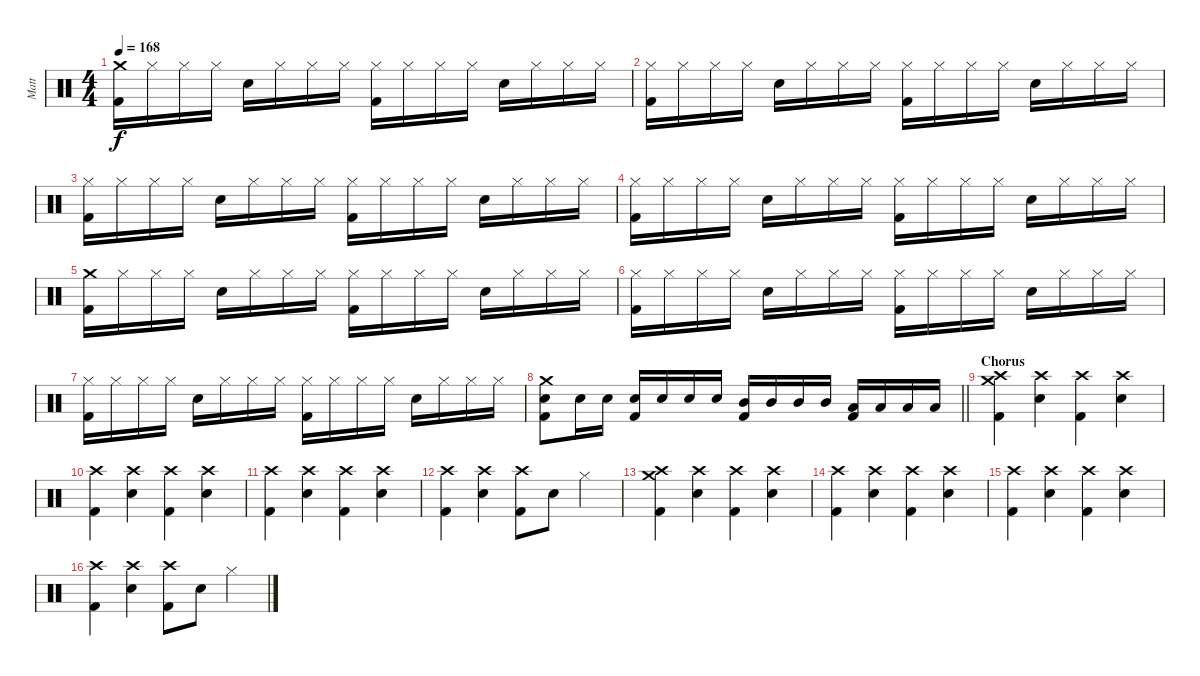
\track ("Matt" "Matt") {instrument percussion}
\staff {score}
\articulation defaults
\ts (4 4)
\tempo 168
\clef neutral
\ks c
("Crash medium (hit)" "Kick (hit) 2").16{dy f} "Hi-Hat (closed)".16 "Hi-Hat (closed)".16 "Hi-Hat (closed)".16 "Electric Snare (hit)".16 "Hi-Hat (closed)".16 "Hi-Hat (closed)".16 "Hi-Hat (closed)".16 ("Hi-Hat (closed)" "Kick (hit) 2").16 "Hi-Hat (closed)".16 "Hi-Hat (closed)".16 "Hi-Hat (closed)".16 "Electric Snare (hit)".16 "Hi-Hat (closed)".16 "Hi-Hat (closed)".16 "Hi-Hat (closed)".16 |
("Hi-Hat (closed)" "Kick (hit) 2").16 "Hi-Hat (closed)".16 "Hi-Hat (closed)".16 "Hi-Hat (closed)".16 "Electric Snare (hit)".16 "Hi-Hat (closed)".16 "Hi-Hat (closed)".16 "Hi-Hat (closed)".16 ("Hi-Hat (closed)" "Kick (hit) 2").16 "Hi-Hat (closed)".16 "Hi-Hat (closed)".16 "Hi-Hat (closed)".16 "Electric Snare (hit)".16 "Hi-Hat (closed)".16 "Hi-Hat (closed)".16 "Hi-Hat (closed)".16 |
("Hi-Hat (closed)" "Kick (hit) 2").16 "Hi-Hat (closed)".16 "Hi-Hat (closed)".16 "Hi-Hat (closed)".16 "Electric Snare (hit)".16 "Hi-Hat (closed)".16 "Hi-Hat (closed)".16 "Hi-Hat (closed)".16 ("Hi-Hat (closed)" "Kick (hit) 2").16 "Hi-Hat (closed)".16 "Hi-Hat (closed)".16 "Hi-Hat (closed)".16 "Electric Snare (hit)".16 "Hi-Hat (closed)".16 "Hi-Hat (closed)".16 "Hi-Hat (closed)".16 |
("Hi-Hat (closed)" "Kick (hit) 2").16 "Hi-Hat (closed)".16 "Hi-Hat (closed)".16 "Hi-Hat (closed)".16 "Electric Snare (hit)".16 "Hi-Hat (closed)".16 "Hi-Hat (closed)".16 "Hi-Hat (closed)".16 ("Hi-Hat (closed)" "Kick (hit) 2").16 "Hi-Hat (closed)".16 "Hi-Hat (closed)".16 "Hi-Hat (closed)".16 "Electric Snare (hit)".16 "Hi-Hat (closed)".16 "Hi-Hat (closed)".16 "Hi-Hat (closed)".16 |
("Crash medium (hit)" "Kick (hit) 2").16 "Hi-Hat (closed)".16 "Hi-Hat (closed)".16 "Hi-Hat (closed)".16 "Electric Snare (hit)".16 "Hi-Hat (closed)".16 "Hi-Hat (closed)".16 "Hi-Hat (closed)".16 ("Hi-Hat (closed)" "Kick (hit) 2").16 "Hi-Hat (closed)".16 "Hi-Hat (closed)".16 "Hi-Hat (closed)".16 "Electric Snare (hit)".16 "Hi-Hat (closed)".16 "Hi-Hat (closed)".16 "Hi-Hat (closed)".16 |
("Hi-Hat (closed)" "Kick (hit) 2").16 "Hi-Hat (closed)".16 "Hi-Hat (closed)".16 "Hi-Hat (closed)".16 "Electric Snare (hit)".16 "Hi-Hat (closed)".16 "Hi-Hat (closed)".16 "Hi-Hat (closed)".16 ("Hi-Hat (closed)" "Kick (hit) 2").16 "Hi-Hat (closed)".16 "Hi-Hat (closed)".16 "Hi-Hat (closed)".16 "Electric Snare (hit)".16 "Hi-Hat (closed)".16 "Hi-Hat (closed)".16 "Hi-Hat (closed)".16 |
("Hi-Hat (closed)" "Kick (hit) 2").16 "Hi-Hat (closed)".16 "Hi-Hat (closed)".16 "Hi-Hat (closed)".16 "Electric Snare (hit)".16 "Hi-Hat (closed)".16 "Hi-Hat (closed)".16 "Hi-Hat (closed)".16 ("Hi-Hat (closed)" "Kick (hit) 2").16 "Hi-Hat (closed)".16 "Hi-Hat (closed)".16 "Hi-Hat (closed)".16 "Electric Snare (hit)".16 "Hi-Hat (closed)".16 "Hi-Hat (closed)".16 "Hi-Hat (closed)".16 |
\barLineRight lightlight
("Crash medium (hit)" "Electric Snare (hit)" "Kick (hit) 2").8 "Electric Snare (hit)".16 "Electric Snare (hit)".16 ("Electric Snare (hit)" "Kick (hit) 2").16 "Electric Snare (hit)".16 "Electric Snare (hit)".16 "Electric Snare (hit)".16 ("Mid Tom (hit)" "Kick (hit) 2").16 "Mid Tom (hit)".16 "Mid Tom (hit)".16 "Mid Tom (hit)".16 ("Low Tom (hit)" "Kick (hit) 2").16 "Low Tom (hit)".16 "Low Tom (hit)".16 "Low Tom (hit)".16 |
\section ("" "Chorus")
("Crash medium (hit)" "Crash high (hit)" "Kick (hit) 2").4 ("Crash high (hit)" "Electric Snare (hit)").4 ("Crash high (hit)" "Kick (hit) 2").4 ("Crash high (hit)" "Electric Snare (hit)").4 |
("Crash high (hit)" "Kick (hit) 2").4 ("Crash high (hit)" "Electric Snare (hit)").4 ("Crash high (hit)" "Kick (hit) 2").4 ("Crash high (hit)" "Electric Snare (hit)").4 |
("Crash high (hit)" "Kick (hit) 2").4 ("Crash high (hit)" "Electric Snare (hit)").4 ("Crash high (hit)" "Kick (hit) 2").4 ("Crash high (hit)" "Electric Snare (hit)").4 |
("Crash high (hit)" "Kick (hit) 2").4 ("Crash high (hit)" "Electric Snare (hit)").4 ("Crash high (hit)" "Kick (hit) 2").8 "Electric Snare (hit)".8 "Hi-Hat (closed)".4 |
("Crash medium (hit)" "Crash high (hit)" "Kick (hit) 2").4 ("Crash high (hit)" "Electric Snare (hit)").4 ("Crash high (hit)" "Kick (hit) 2").4 ("Crash high (hit)" "Electric Snare (hit)").4 |
("Crash high (hit)" "Kick (hit) 2").4 ("Crash high (hit)" "Electric Snare (hit)").4 ("Crash high (hit)" "Kick (hit) 2").4 ("Crash high (hit)" "Electric Snare (hit)").4 |
("Crash high (hit)" "Kick (hit) 2").4 ("Crash high (hit)" "Electric Snare (hit)").4 ("Crash high (hit)" "Kick (hit) 2").4 ("Crash high (hit)" "Electric Snare (hit)").4 |
("Crash high (hit)" "Kick (hit) 2").4 ("Crash high (hit)" "Electric Snare (hit)").4 ("Crash high (hit)" "Kick (hit) 2").8 "Electric Snare (hit)".8 "Hi-Hat (closed)".4
